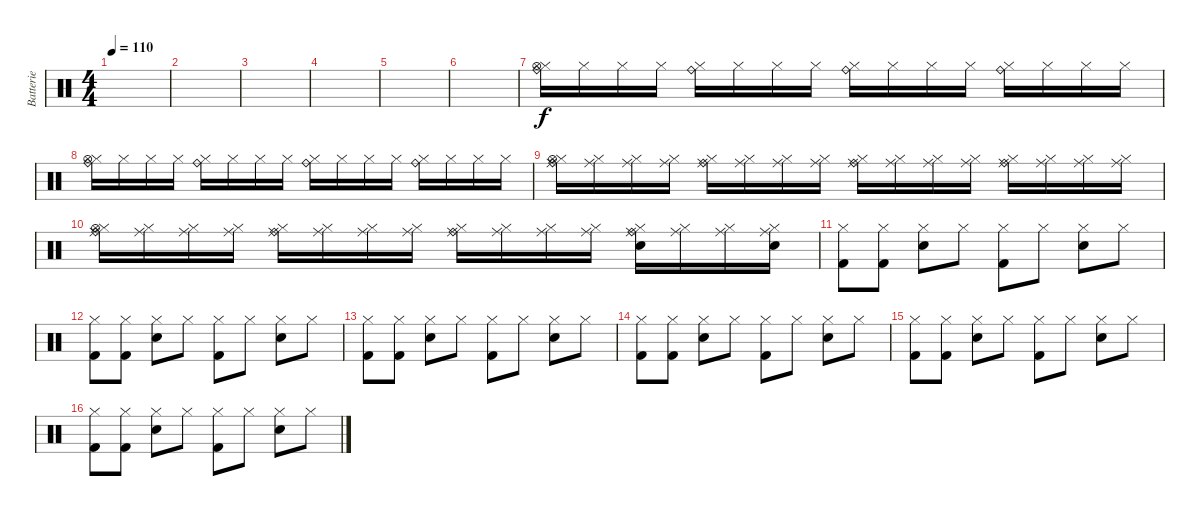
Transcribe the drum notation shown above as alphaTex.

\track ("Batterie" "Batterie") {instrument percussion}
\staff {score}
\articulation defaults
\ts (4 4)
\tempo 110
\clef neutral
\ks c
|
|
|
|
|
|
("Hi-Hat (closed)" "Ride (bell)" "Hi-Hat (open)").16 "Hi-Hat (closed)".16 "Hi-Hat (closed)".16 "Hi-Hat (closed)".16 ("Hi-Hat (closed)" "Ride (bell)").16 "Hi-Hat (closed)".16 "Hi-Hat (closed)".16 "Hi-Hat (closed)".16 ("Hi-Hat (closed)" "Ride (bell)").16 "Hi-Hat (closed)".16 "Hi-Hat (closed)".16 "Hi-Hat (closed)".16 ("Hi-Hat (closed)" "Ride (bell)").16 "Hi-Hat (closed)".16 "Hi-Hat (closed)".16 "Hi-Hat (closed)".16 |
("Hi-Hat (closed)" "Ride (bell)" "Hi-Hat (open)").16 "Hi-Hat (closed)".16 "Hi-Hat (closed)".16 "Hi-Hat (closed)".16 ("Hi-Hat (closed)" "Ride (bell)").16 "Hi-Hat (closed)".16 "Hi-Hat (closed)".16 "Hi-Hat (closed)".16 ("Hi-Hat (closed)" "Ride (bell)").16 "Hi-Hat (closed)".16 "Hi-Hat (closed)".16 "Hi-Hat (closed)".16 ("Hi-Hat (closed)" "Ride (bell)").16 "Hi-Hat (closed)".16 "Hi-Hat (closed)".16 "Hi-Hat (closed)".16 |
("Hi-Hat (closed)" "Ride (middle)" "Ride (bell)" "Hi-Hat (open)").16 ("Hi-Hat (closed)" "Ride (middle)").16 ("Hi-Hat (closed)" "Ride (middle)").16 ("Hi-Hat (closed)" "Ride (middle)").16 ("Hi-Hat (closed)" "Ride (middle)" "Ride (bell)").16 ("Hi-Hat (closed)" "Ride (middle)").16 ("Hi-Hat (closed)" "Ride (middle)").16 ("Hi-Hat (closed)" "Ride (middle)").16 ("Hi-Hat (closed)" "Ride (middle)" "Ride (bell)").16 ("Hi-Hat (closed)" "Ride (middle)").16 ("Hi-Hat (closed)" "Ride (middle)").16 ("Hi-Hat (closed)" "Ride (middle)").16 ("Hi-Hat (closed)" "Ride (middle)" "Ride (bell)").16 ("Hi-Hat (closed)" "Ride (middle)").16 ("Hi-Hat (closed)" "Ride (middle)").16 ("Hi-Hat (closed)" "Ride (middle)").16 |
("Hi-Hat (closed)" "Ride (middle)" "Ride (bell)" "Hi-Hat (open)").16 ("Hi-Hat (closed)" "Ride (middle)").16 ("Hi-Hat (closed)" "Ride (middle)").16 ("Hi-Hat (closed)" "Ride (middle)").16 ("Hi-Hat (closed)" "Ride (middle)" "Ride (bell)").16 ("Hi-Hat (closed)" "Ride (middle)").16 ("Hi-Hat (closed)" "Ride (middle)").16 ("Hi-Hat (closed)" "Ride (middle)").16 ("Hi-Hat (closed)" "Ride (middle)" "Ride (bell)").16 ("Hi-Hat (closed)" "Ride (middle)").16 ("Hi-Hat (closed)" "Ride (middle)").16 ("Hi-Hat (closed)" "Ride (middle)").16 ("Hi-Hat (closed)" "Ride (middle)" "Ride (bell)" "Snare (hit) 2").16 ("Hi-Hat (closed)" "Ride (middle)").16 ("Hi-Hat (closed)" "Ride (middle)").16 ("Hi-Hat (closed)" "Ride (middle)" "Snare (hit) 2").16 |
("Hi-Hat (closed)" "Kick (hit) 2").8 ("Hi-Hat (closed)" "Kick (hit) 2").8 ("Hi-Hat (closed)" "Snare (hit) 2").8 "Hi-Hat (closed)".8 ("Hi-Hat (closed)" "Kick (hit) 2").8 "Hi-Hat (closed)".8 ("Hi-Hat (closed)" "Snare (hit) 2").8 "Hi-Hat (closed)".8 |
("Hi-Hat (closed)" "Kick (hit) 2").8 ("Hi-Hat (closed)" "Kick (hit) 2").8 ("Hi-Hat (closed)" "Snare (hit) 2").8 "Hi-Hat (closed)".8 ("Hi-Hat (closed)" "Kick (hit) 2").8 "Hi-Hat (closed)".8 ("Hi-Hat (closed)" "Snare (hit) 2").8 "Hi-Hat (closed)".8 |
("Hi-Hat (closed)" "Kick (hit) 2").8 ("Hi-Hat (closed)" "Kick (hit) 2").8 ("Hi-Hat (closed)" "Snare (hit) 2").8 "Hi-Hat (closed)".8 ("Hi-Hat (closed)" "Kick (hit) 2").8 "Hi-Hat (closed)".8 ("Hi-Hat (closed)" "Snare (hit) 2").8 "Hi-Hat (closed)".8 |
("Hi-Hat (closed)" "Kick (hit) 2").8 ("Hi-Hat (closed)" "Kick (hit) 2").8 ("Hi-Hat (closed)" "Snare (hit) 2").8 "Hi-Hat (closed)".8 ("Hi-Hat (closed)" "Kick (hit) 2").8 "Hi-Hat (closed)".8 ("Hi-Hat (closed)" "Snare (hit) 2").8 "Hi-Hat (closed)".8 |
("Hi-Hat (closed)" "Kick (hit) 2").8 ("Hi-Hat (closed)" "Kick (hit) 2").8 ("Hi-Hat (closed)" "Snare (hit) 2").8 "Hi-Hat (closed)".8 ("Hi-Hat (closed)" "Kick (hit) 2").8 "Hi-Hat (closed)".8 ("Hi-Hat (closed)" "Snare (hit) 2").8 "Hi-Hat (closed)".8 |
("Hi-Hat (closed)" "Kick (hit) 2").8 ("Hi-Hat (closed)" "Kick (hit) 2").8 ("Hi-Hat (closed)" "Snare (hit) 2").8 "Hi-Hat (closed)".8 ("Hi-Hat (closed)" "Kick (hit) 2").8 "Hi-Hat (closed)".8 ("Hi-Hat (closed)" "Snare (hit) 2").8 "Hi-Hat (closed)".8
